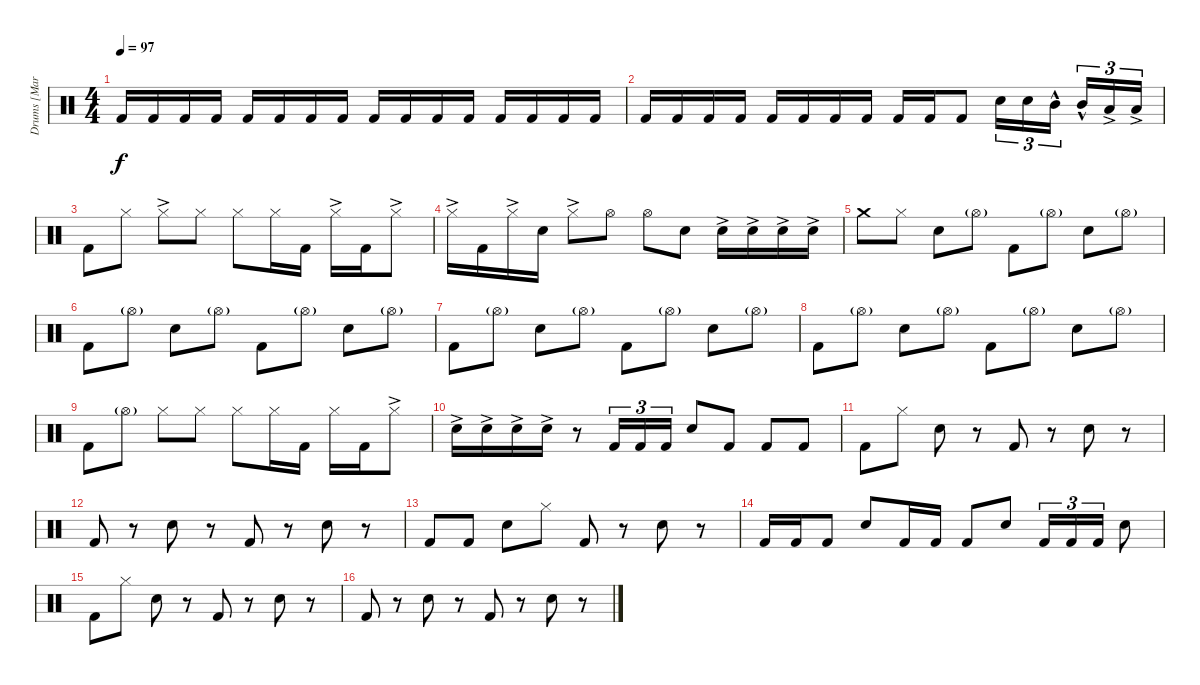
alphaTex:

\track ("Drums [Martin Lopez]" "Drums [Mar") {instrument percussion}
\staff {score}
\articulation defaults
\ts (4 4)
\tempo 97
\clef neutral
\ks c "Kick (hit) 2".16{dy f} "Kick (hit) 2".16 "Kick (hit) 2".16 "Kick (hit) 2".16 "Kick (hit) 2".16 "Kick (hit) 2".16 "Kick (hit) 2".16 "Kick (hit) 2".16 "Kick (hit) 2".16 "Kick (hit) 2".16 "Kick (hit) 2".16 "Kick (hit) 2".16 "Kick (hit) 2".16 "Kick (hit) 2".16 "Kick (hit) 2".16 "Kick (hit) 2".16
|
"Kick (hit) 2".16 "Kick (hit) 2".16 "Kick (hit) 2".16 "Kick (hit) 2".16 "Kick (hit) 2".16 "Kick (hit) 2".16 "Kick (hit) 2".16 "Kick (hit) 2".16 "Kick (hit) 2".16 "Kick (hit) 2".16 "Kick (hit) 2".8 "Snare (hit) 2".16{tu (3 2)} "Snare (hit) 2".16{tu (3 2)} "Mid Tom (hit)"{hac}.16{tu (3 2) beam splitsecondary} "Mid Tom (hit)"{hac}.16{tu (3 2)} "Low Tom (hit)"{ac}.16{tu (3 2)} "Low Tom (hit)"{ac}.16{tu (3 2)} |
"Kick (hit) 2".8 "Hi-Hat (closed)".8 "Hi-Hat (closed)"{ac}.8 "Hi-Hat (closed)".8 "Hi-Hat (closed)".8 "Hi-Hat (closed)".16 "Kick (hit) 2".16 "Hi-Hat (closed)"{ac}.16 "Kick (hit) 2".16 "Hi-Hat (closed)"{ac}.8 |
"Hi-Hat (closed)"{ac}.16 "Kick (hit) 2".16 "Hi-Hat (closed)"{ac}.16 "Snare (hit) 2".16 "Hi-Hat (closed)"{ac}.8 "Hi-Hat (open)".8 "Hi-Hat (open)".8 "Snare (hit) 2".8 "Snare (hit) 2"{ac}.16 "Snare (hit) 2"{ac}.16 "Snare (hit) 2"{ac}.16 "Snare (hit) 2"{ac}.16 |
"Crash medium (hit)".8 "Hi-Hat (closed)".8 "Snare (hit) 2".8 "Hi-Hat (open)"{g}.8 "Kick (hit) 2".8 "Hi-Hat (open)"{g}.8 "Snare (hit) 2".8 "Hi-Hat (open)"{g}.8 |
"Kick (hit) 2".8 "Hi-Hat (open)"{g}.8 "Snare (hit) 2".8 "Hi-Hat (open)"{g}.8 "Kick (hit) 2".8 "Hi-Hat (open)"{g}.8 "Snare (hit) 2".8 "Hi-Hat (open)"{g}.8 |
"Kick (hit) 2".8 "Hi-Hat (open)"{g}.8 "Snare (hit) 2".8 "Hi-Hat (open)"{g}.8 "Kick (hit) 2".8 "Hi-Hat (open)"{g}.8 "Snare (hit) 2".8 "Hi-Hat (open)"{g}.8 |
"Kick (hit) 2".8 "Hi-Hat (open)"{g}.8 "Snare (hit) 2".8 "Hi-Hat (open)"{g}.8 "Kick (hit) 2".8 "Hi-Hat (open)"{g}.8 "Snare (hit) 2".8 "Hi-Hat (open)"{g}.8 |
"Kick (hit) 2".8 "Hi-Hat (open)"{g}.8 "Hi-Hat (closed)".8 "Hi-Hat (closed)".8 "Hi-Hat (closed)".8 "Hi-Hat (closed)".16 "Kick (hit) 2".16 "Hi-Hat (closed)".16 "Kick (hit) 2".16 "Hi-Hat (closed)"{ac}.8 |
"Snare (hit) 2"{ac}.16 "Snare (hit) 2"{ac}.16 "Snare (hit) 2"{ac}.16 "Snare (hit) 2"{ac}.16 r.8 "Kick (hit) 2".16{tu (3 2)} "Kick (hit) 2".16{tu (3 2)} "Kick (hit) 2".16{tu (3 2)} "Snare (hit) 2".8 "Kick (hit) 2".8 "Kick (hit) 2".8 "Kick (hit) 2".8 |
"Kick (hit) 2".8 "Hi-Hat (closed)".8 "Snare (hit) 2".8 r.8 "Kick (hit) 2".8 r.8 "Snare (hit) 2".8 r.8 |
"Kick (hit) 2".8 r.8 "Snare (hit) 2".8 r.8 "Kick (hit) 2".8 r.8 "Snare (hit) 2".8 r.8 |
"Kick (hit) 2".8 "Kick (hit) 2".8 "Snare (hit) 2".8 "Hi-Hat (closed)".8 "Kick (hit) 2".8 r.8 "Snare (hit) 2".8 r.8 |
"Kick (hit) 2".16 "Kick (hit) 2".16 "Kick (hit) 2".8 "Snare (hit) 2".8 "Kick (hit) 2".16 "Kick (hit) 2".16 "Kick (hit) 2".8 "Snare (hit) 2".8 "Kick (hit) 2".16{tu (3 2)} "Kick (hit) 2".16{tu (3 2)} "Kick (hit) 2".16{tu (3 2)} "Snare (hit) 2".8 |
"Kick (hit) 2".8 "Hi-Hat (closed)".8 "Snare (hit) 2".8 r.8 "Kick (hit) 2".8 r.8 "Snare (hit) 2".8 r.8 |
"Kick (hit) 2".8 r.8 "Snare (hit) 2".8 r.8 "Kick (hit) 2".8 r.8 "Snare (hit) 2".8 r.8
